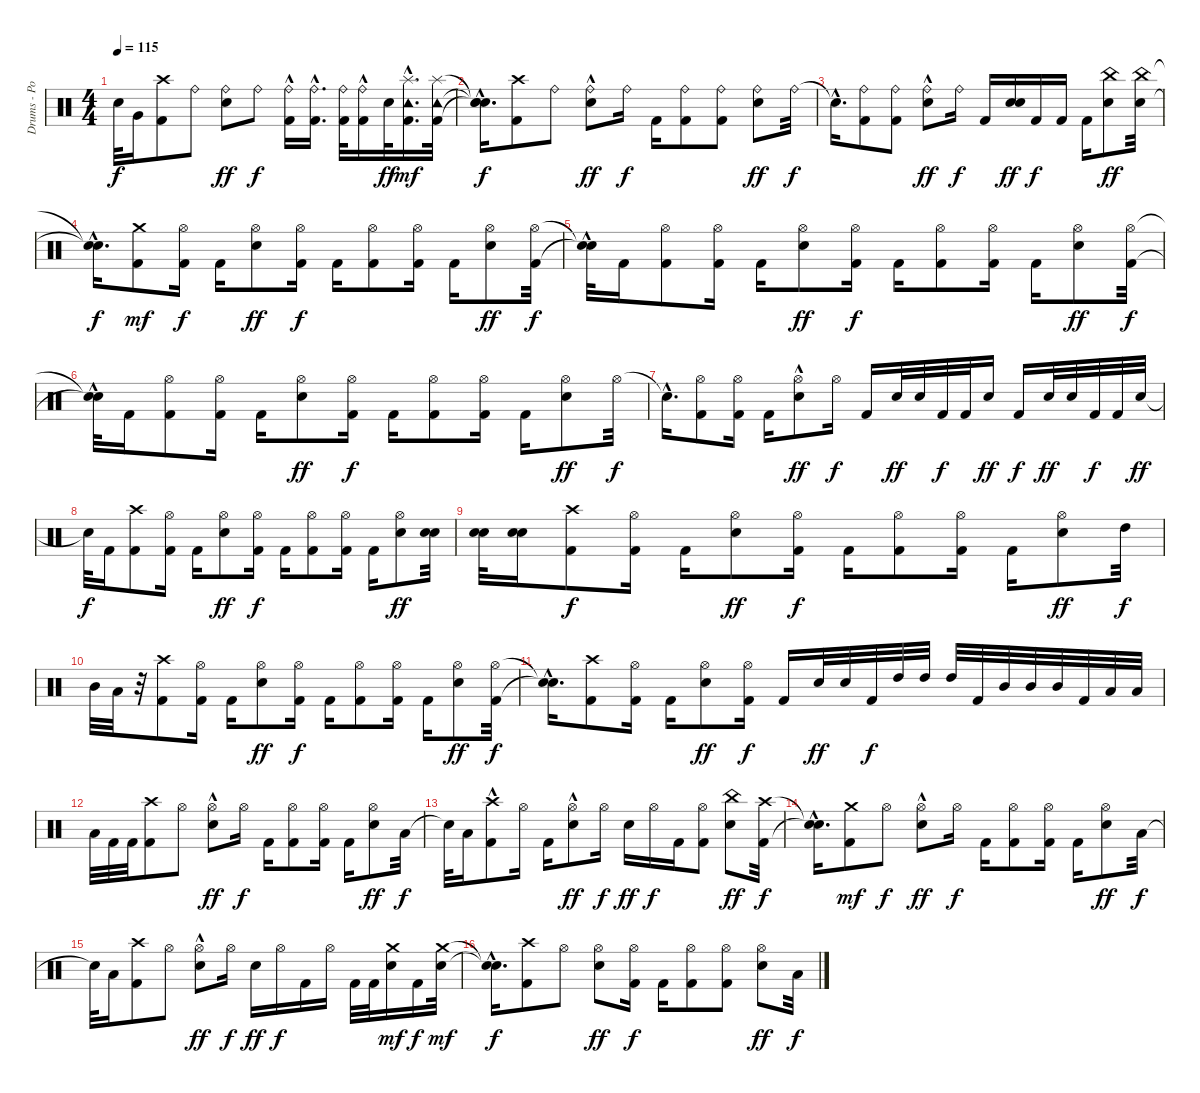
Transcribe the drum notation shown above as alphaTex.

\track ("Drums - Portnoy" "Drums - Po") {instrument percussion}
\staff {score}
\articulation defaults
\ts (4 4)
\tempo 115
\clef neutral
\ks c "Snare (hit)"{t}.32{dy f} "Very Low Tom (hit)".16
("Crash high (hit)" "Kick (hit) 2").8 "Ride (bell)".8 ("Ride (bell)" "Electric Snare (hit)").8{dy ff} "Ride (bell)".8{dy f} ("Kick (hit) 2"{hac} "Ride (bell)"{hac}).16 ("Kick (hit) 2"{hac} "Ride (bell)"{hac}).16{d} ("Kick (hit) 2" "Ride (bell)").32 ("Kick (hit) 2" "Ride (bell)"{hac}).16 "Electric Snare (hit)".32{dy ff} ("Kick (hit) 2"{hac} "Splash (hit)"{hac} "Tambourine (hit)"{hac}).16{d dy mf} ("Kick (hit) 2" "Splash (hit)" "Tambourine (hit)").32 |
("Snare (hit)"{hac t} "Snare (hit)"{hac t} "Snare (hit)"{hac t}).16{d dy f} ("Kick (hit) 2" "Crash high (hit)").8 "Ride (bell)".8 ("Ride (bell)" "Electric Snare (hit)"{hac}).8{dy ff} "Ride (bell)".16{dy f} "Kick (hit) 2".16 ("Kick (hit) 2" "Ride (bell)").8 ("Kick (hit) 2" "Ride (bell)").8 ("Ride (bell)" "Electric Snare (hit)").8{dy ff} "Ride (bell)".32{dy f} |
"Snare (hit)"{hac t}.16{d} ("Ride (bell)" "Kick (hit) 2").8 ("Kick (hit) 2" "Ride (bell)").8 ("Ride (bell)" "Electric Snare (hit)"{hac}).8{dy ff} "Ride (bell)".16{dy f} "Kick (hit) 2".16 ("Electric Snare (hit)" "Electric Snare (hit)").16{dy ff} "Kick (hit) 2".16{dy f} "Kick (hit) 2".16 "Kick (hit) 2".16 ("Electric Snare (hit)" "China (hit)").8{dy ff} ("Electric Snare (hit)" "China (hit)").32 |
("Snare (hit)"{hac t} "Snare (hit)"{hac t}).16{d dy f} ("Kick (hit) 2" "Crash medium (hit)").8{dy mf} ("Kick (hit) 2" "Hi-Hat (open)").16{dy f} "Kick (hit) 2".16 ("Hi-Hat (open)" "Electric Snare (hit)").8{dy ff} ("Kick (hit) 2" "Hi-Hat (open)").16{dy f} "Kick (hit) 2".16 ("Kick (hit) 2" "Hi-Hat (open)").8 ("Kick (hit) 2" "Hi-Hat (open)").16 "Kick (hit) 2".16 ("Hi-Hat (open)" "Electric Snare (hit)").8{dy ff} ("Kick (hit) 2" "Hi-Hat (open)").32{dy f} |
("Snare (hit)"{t} "Snare (hit)"{hac t}).32 "Kick (hit) 2".16 ("Kick (hit) 2" "Hi-Hat (open)").8 ("Kick (hit) 2" "Hi-Hat (open)").16 "Kick (hit) 2".16 ("Hi-Hat (open)" "Electric Snare (hit)").8{dy ff} ("Kick (hit) 2" "Hi-Hat (open)").16{dy f} "Kick (hit) 2".16 ("Kick (hit) 2" "Hi-Hat (open)").8 ("Kick (hit) 2" "Hi-Hat (open)").16 "Kick (hit) 2".16 ("Hi-Hat (open)" "Electric Snare (hit)").8{dy ff} ("Kick (hit) 2" "Hi-Hat (open)").32{dy f} |
("Snare (hit)"{t} "Snare (hit)"{hac t}).32 "Kick (hit) 2".16 ("Kick (hit) 2" "Hi-Hat (open)").8 ("Kick (hit) 2" "Hi-Hat (open)").16 "Kick (hit) 2".16 ("Hi-Hat (open)" "Electric Snare (hit)").8{dy ff} ("Kick (hit) 2" "Hi-Hat (open)").16{dy f} "Kick (hit) 2".16 ("Kick (hit) 2" "Hi-Hat (open)").8 ("Kick (hit) 2" "Hi-Hat (open)").16 "Kick (hit) 2".16 ("Hi-Hat (open)" "Electric Snare (hit)").8{dy ff} "Hi-Hat (open)".32{dy f} |
"Snare (hit)"{hac t}.16{d} ("Kick (hit) 2" "Hi-Hat (open)").8 ("Kick (hit) 2" "Hi-Hat (open)").16 "Kick (hit) 2".16 ("Hi-Hat (open)" "Electric Snare (hit)"{hac}).8{dy ff} "Hi-Hat (open)".16{dy f} "Kick (hit) 2".16 "Electric Snare (hit)".32{dy ff} "Electric Snare (hit)".32 "Kick (hit) 2".32{dy f} "Kick (hit) 2".32 "Electric Snare (hit)".16{dy ff} "Kick (hit) 2".16{dy f} "Electric Snare (hit)".32{dy ff} "Electric Snare (hit)".32 "Kick (hit) 2".32{dy f} "Kick (hit) 2".32 "Electric Snare (hit)".32{dy ff} |
"Snare (hit)"{t}.32{dy f} "Kick (hit) 2".16 ("Kick (hit) 2" "Crash high (hit)").8 ("Kick (hit) 2" "Hi-Hat (open)").16 "Kick (hit) 2".16 ("Hi-Hat (open)" "Electric Snare (hit)").8{dy ff} ("Kick (hit) 2" "Hi-Hat (open)").16{dy f} "Kick (hit) 2".16 ("Kick (hit) 2" "Hi-Hat (open)").8 ("Kick (hit) 2" "Hi-Hat (open)").16 "Kick (hit) 2".16 ("Hi-Hat (open)" "Electric Snare (hit)").8{dy ff} ("Electric Snare (hit)" "Electric Snare (hit)").32 |
("Electric Snare (hit)" "Electric Snare (hit)").32 ("Electric Snare (hit)" "Electric Snare (hit)").16 ("Crash high (hit)" "Kick (hit) 2").8{dy f} ("Kick (hit) 2" "Hi-Hat (open)").16 "Kick (hit) 2".16 ("Hi-Hat (open)" "Electric Snare (hit)").8{dy ff} ("Kick (hit) 2" "Hi-Hat (open)").16{dy f} "Kick (hit) 2".16 ("Kick (hit) 2" "Hi-Hat (open)").8 ("Kick (hit) 2" "Hi-Hat (open)").16 "Kick (hit) 2".16 ("Hi-Hat (open)" "Electric Snare (hit)").8{dy ff} "High Tom (hit)".32{dy f} |
"Mid Tom (hit)".32 "Low Tom (hit)".32 r.32 ("Kick (hit) 2" "Crash high (hit)").8 ("Kick (hit) 2" "Hi-Hat (open)").16 "Kick (hit) 2".16 ("Hi-Hat (open)" "Electric Snare (hit)").8{dy ff} ("Kick (hit) 2" "Hi-Hat (open)").16{dy f} "Kick (hit) 2".16 ("Kick (hit) 2" "Hi-Hat (open)").8 ("Kick (hit) 2" "Hi-Hat (open)").16 "Kick (hit) 2".16 ("Hi-Hat (open)" "Electric Snare (hit)").8{dy ff} ("Kick (hit) 2" "Hi-Hat (open)").32{dy f} |
("Snare (hit)"{hac t} "Snare (hit)"{hac t}).16{d} ("Crash high (hit)" "Kick (hit) 2").8 ("Kick (hit) 2" "Hi-Hat (open)").16 "Kick (hit) 2".16 ("Hi-Hat (open)" "Electric Snare (hit)").8{dy ff} ("Kick (hit) 2" "Hi-Hat (open)").16{dy f} "Kick (hit) 2".16 "Electric Snare (hit)".32{dy ff} "Electric Snare (hit)".32 "Kick (hit) 2".32{dy f} "High Tom (hit)".32 "High Tom (hit)".32 "High Tom (hit)".32 "Kick (hit) 2".32 "Mid Tom (hit)".32 "Mid Tom (hit)".32 "Mid Tom (hit)".32 "Kick (hit) 2".32 "Low Tom (hit)".32 "Low Tom (hit)".32 |
"Low Tom (hit)".32 "Kick (hit) 2".32 "Kick (hit) 2".32 ("Kick (hit) 2" "Crash high (hit)").8 "Hi-Hat (open)".8 ("Hi-Hat (open)" "Electric Snare (hit)"{hac}).8{dy ff} "Hi-Hat (open)".16{dy f} "Kick (hit) 2".16 ("Kick (hit) 2" "Hi-Hat (open)").8 ("Kick (hit) 2" "Hi-Hat (open)").16 "Kick (hit) 2".16 ("Hi-Hat (open)" "Electric Snare (hit)").8{dy ff} "Low Floor Tom (hit)".32{dy f} |
"Snare (hit)"{t}.32 "Low Floor Tom (hit)".16 ("Kick (hit) 2"{hac} "Crash high (hit)").8 "Hi-Hat (open)".16 "Kick (hit) 2".16 ("Hi-Hat (open)" "Electric Snare (hit)"{hac}).8{dy ff} "Hi-Hat (open)".16{dy f} "Electric Snare (hit)".16{dy ff} "Hi-Hat (open)".16{dy f} "Kick (hit) 2".16 ("Kick (hit) 2" "Hi-Hat (open)").8 ("Electric Snare (hit)" "China (hit)").8{dy ff} ("Kick (hit) 2" "Crash high (hit)").32{dy f} |
("Snare (hit)"{hac t} "Snare (hit)"{hac t}).16{d} ("Kick (hit) 2" "Crash medium (hit)").8{dy mf} "Hi-Hat (open)".8{dy f} ("Hi-Hat (open)" "Electric Snare (hit)"{hac}).8{dy ff} "Hi-Hat (open)".16{dy f} "Kick (hit) 2".16 ("Kick (hit) 2" "Hi-Hat (open)").8 ("Kick (hit) 2" "Hi-Hat (open)").16 "Kick (hit) 2".16 ("Hi-Hat (open)" "Electric Snare (hit)").8{dy ff} "Low Floor Tom (hit)".32{dy f} |
"Snare (hit)"{t}.32 "Low Floor Tom (hit)".16 ("Crash high (hit)" "Kick (hit) 2").8 "Hi-Hat (open)".8 ("Hi-Hat (open)" "Electric Snare (hit)"{hac}).8{dy ff} "Hi-Hat (open)".16{dy f} "Electric Snare (hit)".16{dy ff} "Hi-Hat (open)".16{dy f} "Kick (hit) 2".16 "Hi-Hat (open)".16 "Kick (hit) 2".32 "Kick (hit) 2".32 ("Electric Snare (hit)" "Crash medium (hit)").16{dy mf} "Kick (hit) 2".16{dy f} ("Electric Snare (hit)" "Crash medium (hit)").32{dy mf} |
("Snare (hit)"{hac t} "Snare (hit)"{hac t}).16{d dy f} ("Kick (hit) 2" "Crash high (hit)").8 "Hi-Hat (open)".8 ("Hi-Hat (open)" "Electric Snare (hit)").8{dy ff} ("Kick (hit) 2" "Hi-Hat (open)").16{dy f} "Kick (hit) 2".16 ("Kick (hit) 2" "Hi-Hat (open)").8 ("Kick (hit) 2" "Hi-Hat (open)").8 ("Hi-Hat (open)" "Electric Snare (hit)").8{dy ff} "Low Floor Tom (hit)".32{dy f}
